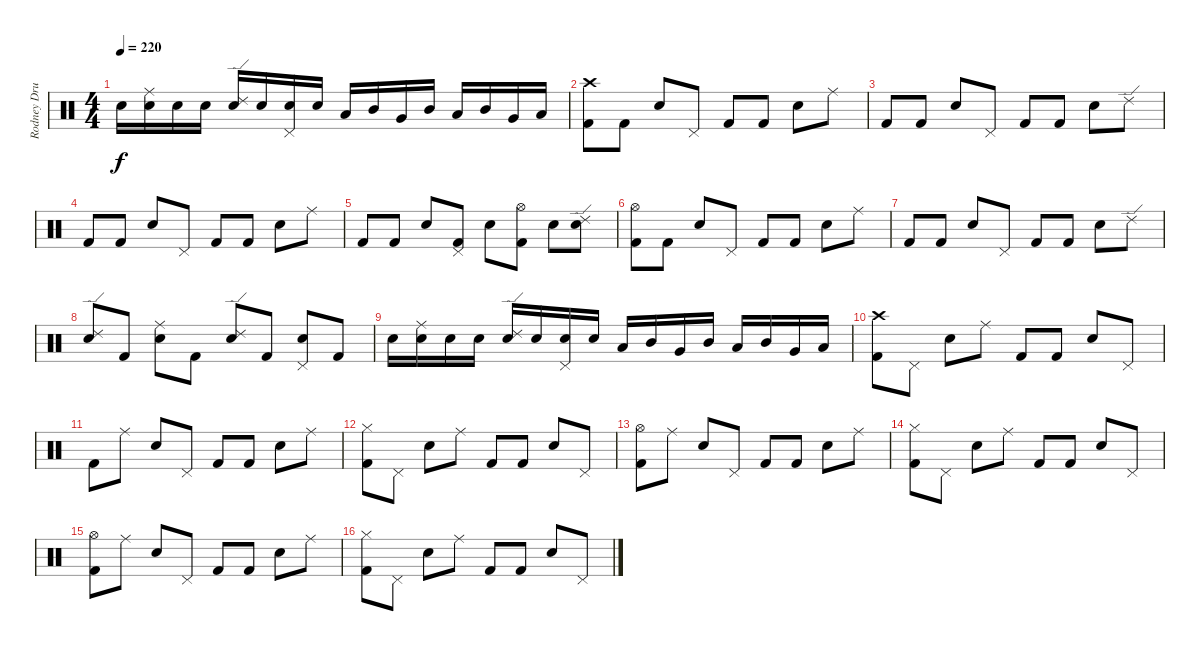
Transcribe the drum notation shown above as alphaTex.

\track ("Rodney Drums" "Rodney Dru") {instrument percussion}
\staff {score}
\articulation defaults
\ts (4 4)
\tempo 220
\clef neutral
\ks c "Electric Snare (hit)".16{dy f}
("Ride (middle)" "Electric Snare (hit)").16 "Electric Snare (hit)".16 "Electric Snare (hit)".16 ("Ride (edge) 2" "Electric Snare (hit)").16 "Electric Snare (hit)".16 ("Pedal Hi-Hat (hit)" "Electric Snare (hit)").16 "Electric Snare (hit)".16 "Low Tom (hit)".16 "Mid Tom (hit)".16 "Very Low Tom (hit)".16 "Mid Tom (hit)".16 "Low Tom (hit)".16 "Mid Tom (hit)".16 "Very Low Tom (hit)".16 "Low Tom (hit)".16 |
("Crash high (hit)" "Kick (hit) 2").8 "Kick (hit) 2".8 "Electric Snare (hit)".8 "Pedal Hi-Hat (hit)".8 "Kick (hit) 2".8 "Kick (hit) 2".8 "Electric Snare (hit)".8 "Ride (middle)".8 |
"Kick (hit) 2".8 "Kick (hit) 2".8 "Electric Snare (hit)".8 "Pedal Hi-Hat (hit)".8 "Kick (hit) 2".8 "Kick (hit) 2".8 "Electric Snare (hit)".8 "Ride (edge) 2".8 |
"Kick (hit) 2".8 "Kick (hit) 2".8 "Electric Snare (hit)".8 "Pedal Hi-Hat (hit)".8 "Kick (hit) 2".8 "Kick (hit) 2".8 "Electric Snare (hit)".8 "Ride (middle)".8 |
"Kick (hit) 2".8 "Kick (hit) 2".8 "Electric Snare (hit)".8 ("Pedal Hi-Hat (hit)" "Kick (hit) 2").8 "Electric Snare (hit)".8 ("Hi-Hat (open)" "Kick (hit) 2").8 "Electric Snare (hit)".8 ("Ride (edge) 2" "Electric Snare (hit)").8 |
("Hi-Hat (open)" "Kick (hit) 2").8 "Kick (hit) 2".8 "Electric Snare (hit)".8 "Pedal Hi-Hat (hit)".8 "Kick (hit) 2".8 "Kick (hit) 2".8 "Electric Snare (hit)".8 "Ride (middle)".8 |
"Kick (hit) 2".8 "Kick (hit) 2".8 "Electric Snare (hit)".8 "Pedal Hi-Hat (hit)".8 "Kick (hit) 2".8 "Kick (hit) 2".8 "Electric Snare (hit)".8 "Ride (edge) 2".8 |
("Ride (edge) 2" "Electric Snare (hit)").8 "Kick (hit) 2".8 ("Ride (middle)" "Electric Snare (hit)").8 "Kick (hit) 2".8 ("Ride (edge) 2" "Electric Snare (hit)").8 "Kick (hit) 2".8 ("Pedal Hi-Hat (hit)" "Electric Snare (hit)").8 "Kick (hit) 2".8 |
"Electric Snare (hit)".16 ("Ride (middle)" "Electric Snare (hit)").16 "Electric Snare (hit)".16 "Electric Snare (hit)".16 ("Ride (edge) 2" "Electric Snare (hit)").16 "Electric Snare (hit)".16 ("Pedal Hi-Hat (hit)" "Electric Snare (hit)").16 "Electric Snare (hit)".16 "Low Tom (hit)".16 "Mid Tom (hit)".16 "Very Low Tom (hit)".16 "Mid Tom (hit)".16 "Low Tom (hit)".16 "Mid Tom (hit)".16 "Very Low Tom (hit)".16 "Low Tom (hit)".16 |
("Crash high (hit)" "Kick (hit) 2").8 "Pedal Hi-Hat (hit)".8 "Electric Snare (hit)".8 "Ride (middle)".8 "Kick (hit) 2".8 "Kick (hit) 2".8 "Electric Snare (hit)".8 "Pedal Hi-Hat (hit)".8 |
"Kick (hit) 2".8 "Ride (middle)".8 "Electric Snare (hit)".8 "Pedal Hi-Hat (hit)".8 "Kick (hit) 2".8 "Kick (hit) 2".8 "Electric Snare (hit)".8 "Ride (middle)".8 |
("Hi-Hat (closed)" "Kick (hit) 2").8 "Pedal Hi-Hat (hit)".8 "Electric Snare (hit)".8 "Ride (middle)".8 "Kick (hit) 2".8 "Kick (hit) 2".8 "Electric Snare (hit)".8 "Pedal Hi-Hat (hit)".8 |
("Hi-Hat (open)" "Kick (hit) 2").8 "Ride (middle)".8 "Electric Snare (hit)".8 "Pedal Hi-Hat (hit)".8 "Kick (hit) 2".8 "Kick (hit) 2".8 "Electric Snare (hit)".8 "Ride (middle)".8 |
("Hi-Hat (closed)" "Kick (hit) 2").8 "Pedal Hi-Hat (hit)".8 "Electric Snare (hit)".8 "Ride (middle)".8 "Kick (hit) 2".8 "Kick (hit) 2".8 "Electric Snare (hit)".8 "Pedal Hi-Hat (hit)".8 |
("Hi-Hat (open)" "Kick (hit) 2").8 "Ride (middle)".8 "Electric Snare (hit)".8 "Pedal Hi-Hat (hit)".8 "Kick (hit) 2".8 "Kick (hit) 2".8 "Electric Snare (hit)".8 "Ride (middle)".8 |
("Hi-Hat (closed)" "Kick (hit) 2").8 "Pedal Hi-Hat (hit)".8 "Electric Snare (hit)".8 "Ride (middle)".8 "Kick (hit) 2".8 "Kick (hit) 2".8 "Electric Snare (hit)".8 "Pedal Hi-Hat (hit)".8
